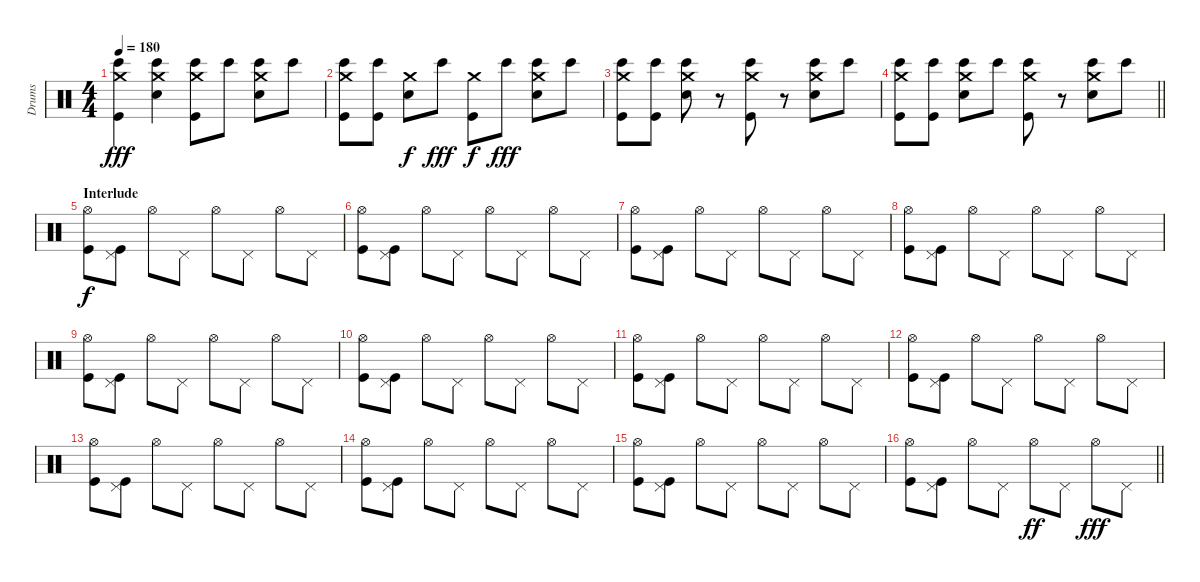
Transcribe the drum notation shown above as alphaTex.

\track ("Drums" "Drums") {instrument percussion}
\staff {score}
\articulation defaults
\ts (4 4)
\tempo 180
\clef neutral
\ks c
("Crash medium (hit)" "Bongo High (hit)" "Kick (hit)").4{dy fff} ("Crash medium (hit)" "Electric Snare (hit)" "Bongo High (hit)").4 ("Crash medium (hit)" "Bongo High (hit)" "Kick (hit)").8 "Bongo High (hit)".8 ("Crash medium (hit)" "Electric Snare (hit)" "Bongo High (hit)").8 "Bongo High (hit)".8 |
("Crash medium (hit)" "Bongo High (hit)" "Kick (hit)").8 ("Bongo High (hit)" "Kick (hit)").8 ("Crash medium (hit)" "Electric Snare (hit)").8{dy f} "Bongo High (hit)".8{dy fff} ("Crash medium (hit)" "Kick (hit)").8{dy f} "Bongo High (hit)".8{dy fff} ("Crash medium (hit)" "Electric Snare (hit)" "Bongo High (hit)").8 "Bongo High (hit)".8 |
("Crash medium (hit)" "Bongo High (hit)" "Kick (hit)").8 ("Bongo High (hit)" "Kick (hit)").8 ("Crash medium (hit)" "Electric Snare (hit)" "Bongo High (hit)").8 r.8 ("Crash medium (hit)" "Bongo High (hit)" "Kick (hit)").8 r.8 ("Crash medium (hit)" "Electric Snare (hit)" "Bongo High (hit)").8 "Bongo High (hit)".8 |
\barLineRight lightlight
("Crash medium (hit)" "Bongo High (hit)" "Kick (hit)").8 ("Bongo High (hit)" "Kick (hit)").8 ("Crash medium (hit)" "Electric Snare (hit)" "Bongo High (hit)").8 "Bongo High (hit)".8 ("Crash medium (hit)" "Bongo High (hit)" "Kick (hit)").8 r.8 ("Crash medium (hit)" "Electric Snare (hit)" "Bongo High (hit)").8 "Bongo High (hit)".8 |
\section ("" "Interlude")
("Hi-Hat (open)" "Kick (hit)").8{dy f} ("Pedal Hi-Hat (hit)" "Kick (hit)").8 "Hi-Hat (open)".8 "Pedal Hi-Hat (hit)".8 "Hi-Hat (open)".8 "Pedal Hi-Hat (hit)".8 "Hi-Hat (open)".8 "Pedal Hi-Hat (hit)".8 |
("Hi-Hat (open)" "Kick (hit)").8 ("Pedal Hi-Hat (hit)" "Kick (hit)").8 "Hi-Hat (open)".8 "Pedal Hi-Hat (hit)".8 "Hi-Hat (open)".8 "Pedal Hi-Hat (hit)".8 "Hi-Hat (open)".8 "Pedal Hi-Hat (hit)".8 |
("Hi-Hat (open)" "Kick (hit)").8 ("Pedal Hi-Hat (hit)" "Kick (hit)").8 "Hi-Hat (open)".8 "Pedal Hi-Hat (hit)".8 "Hi-Hat (open)".8 "Pedal Hi-Hat (hit)".8 "Hi-Hat (open)".8 "Pedal Hi-Hat (hit)".8 |
("Hi-Hat (open)" "Kick (hit)").8 ("Pedal Hi-Hat (hit)" "Kick (hit)").8 "Hi-Hat (open)".8 "Pedal Hi-Hat (hit)".8 "Hi-Hat (open)".8 "Pedal Hi-Hat (hit)".8 "Hi-Hat (open)".8 "Pedal Hi-Hat (hit)".8 |
("Hi-Hat (open)" "Kick (hit)").8 ("Pedal Hi-Hat (hit)" "Kick (hit)").8 "Hi-Hat (open)".8 "Pedal Hi-Hat (hit)".8 "Hi-Hat (open)".8 "Pedal Hi-Hat (hit)".8 "Hi-Hat (open)".8 "Pedal Hi-Hat (hit)".8 |
("Hi-Hat (open)" "Kick (hit)").8 ("Pedal Hi-Hat (hit)" "Kick (hit)").8 "Hi-Hat (open)".8 "Pedal Hi-Hat (hit)".8 "Hi-Hat (open)".8 "Pedal Hi-Hat (hit)".8 "Hi-Hat (open)".8 "Pedal Hi-Hat (hit)".8 |
("Hi-Hat (open)" "Kick (hit)").8 ("Pedal Hi-Hat (hit)" "Kick (hit)").8 "Hi-Hat (open)".8 "Pedal Hi-Hat (hit)".8 "Hi-Hat (open)".8 "Pedal Hi-Hat (hit)".8 "Hi-Hat (open)".8 "Pedal Hi-Hat (hit)".8 |
("Hi-Hat (open)" "Kick (hit)").8 ("Pedal Hi-Hat (hit)" "Kick (hit)").8 "Hi-Hat (open)".8 "Pedal Hi-Hat (hit)".8 "Hi-Hat (open)".8 "Pedal Hi-Hat (hit)".8 "Hi-Hat (open)".8 "Pedal Hi-Hat (hit)".8 |
("Hi-Hat (open)" "Kick (hit)").8 ("Pedal Hi-Hat (hit)" "Kick (hit)").8 "Hi-Hat (open)".8 "Pedal Hi-Hat (hit)".8 "Hi-Hat (open)".8 "Pedal Hi-Hat (hit)".8 "Hi-Hat (open)".8 "Pedal Hi-Hat (hit)".8 |
("Hi-Hat (open)" "Kick (hit)").8 ("Pedal Hi-Hat (hit)" "Kick (hit)").8 "Hi-Hat (open)".8 "Pedal Hi-Hat (hit)".8 "Hi-Hat (open)".8 "Pedal Hi-Hat (hit)".8 "Hi-Hat (open)".8 "Pedal Hi-Hat (hit)".8 |
("Hi-Hat (open)" "Kick (hit)").8 ("Pedal Hi-Hat (hit)" "Kick (hit)").8 "Hi-Hat (open)".8 "Pedal Hi-Hat (hit)".8 "Hi-Hat (open)".8 "Pedal Hi-Hat (hit)".8 "Hi-Hat (open)".8 "Pedal Hi-Hat (hit)".8 |
\barLineRight lightlight
("Hi-Hat (open)" "Kick (hit)").8 ("Pedal Hi-Hat (hit)" "Kick (hit)").8 "Hi-Hat (open)".8 "Pedal Hi-Hat (hit)".8 "Hi-Hat (open)".8{dy ff} "Pedal Hi-Hat (hit)".8 "Hi-Hat (open)".8{dy fff} "Pedal Hi-Hat (hit)".8
